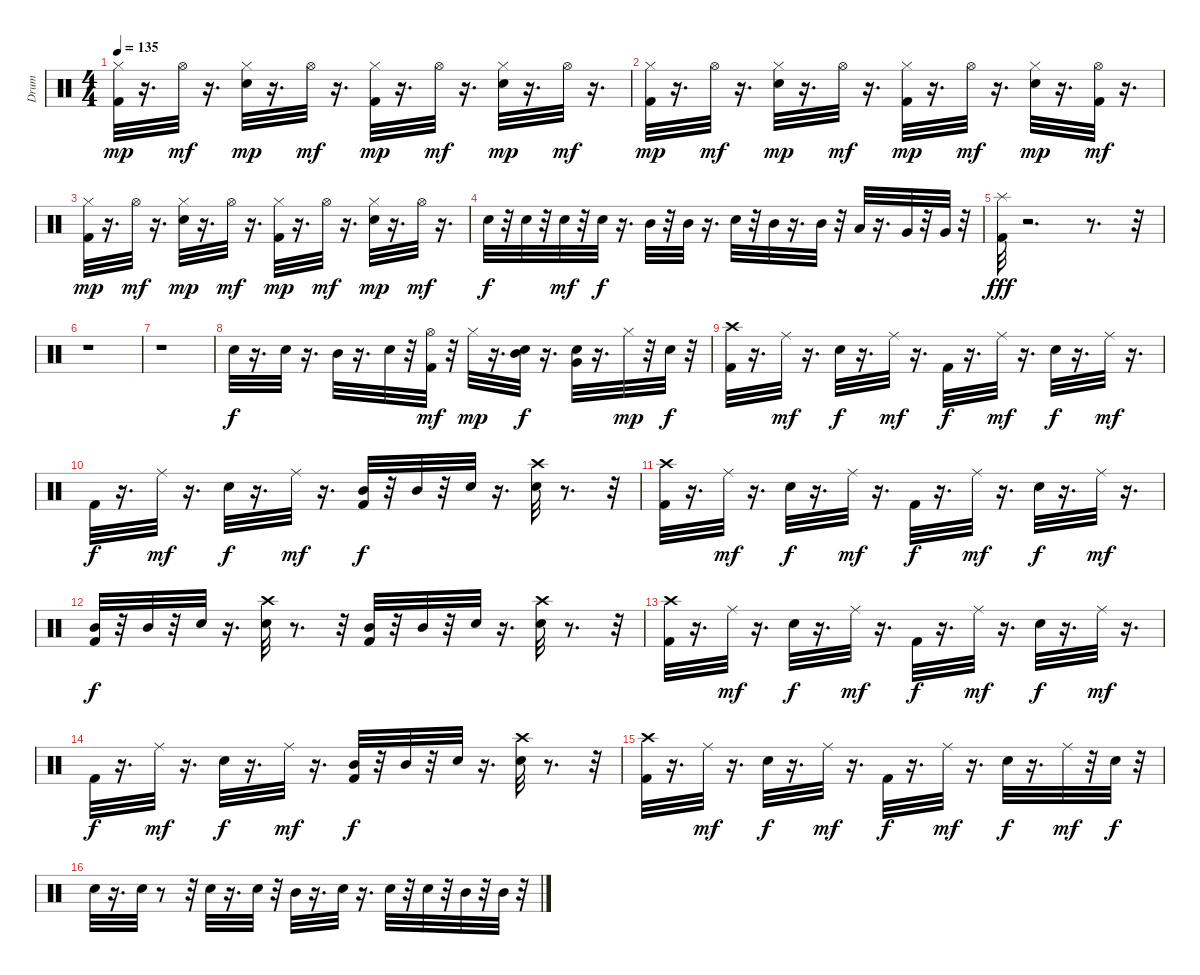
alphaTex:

\track ("Drum" "Drum") {instrument percussion}
\staff {score}
\articulation defaults
\ts (4 4)
\tempo 135
\clef neutral
\ks c
("Hi-Hat (closed)" "Kick (hit) 2").32{dy mp} r.16{d} "Hi-Hat (open)".32{dy mf} r.16{d} ("Hi-Hat (closed)" "Electric Snare (hit)").32{dy mp} r.16{d} "Hi-Hat (open)".32{dy mf} r.16{d} ("Hi-Hat (closed)" "Kick (hit) 2").32{dy mp} r.16{d} "Hi-Hat (open)".32{dy mf} r.16{d} ("Hi-Hat (closed)" "Electric Snare (hit)").32{dy mp} r.16{d} "Hi-Hat (open)".32{dy mf} r.16{d} |
("Hi-Hat (closed)" "Kick (hit) 2").32{dy mp} r.16{d} "Hi-Hat (open)".32{dy mf} r.16{d} ("Hi-Hat (closed)" "Electric Snare (hit)").32{dy mp} r.16{d} "Hi-Hat (open)".32{dy mf} r.16{d} ("Hi-Hat (closed)" "Kick (hit) 2").32{dy mp} r.16{d} "Hi-Hat (open)".32{dy mf} r.16{d} ("Hi-Hat (closed)" "Electric Snare (hit)").32{dy mp} r.16{d} ("Hi-Hat (open)" "Kick (hit) 2").32{dy mf} r.16{d} |
("Hi-Hat (closed)" "Kick (hit) 2").32{dy mp} r.16{d} "Hi-Hat (open)".32{dy mf} r.16{d} ("Hi-Hat (closed)" "Electric Snare (hit)").32{dy mp} r.16{d} "Hi-Hat (open)".32{dy mf} r.16{d} ("Hi-Hat (closed)" "Kick (hit) 2").32{dy mp} r.16{d} "Hi-Hat (open)".32{dy mf} r.16{d} ("Hi-Hat (closed)" "Electric Snare (hit)").32{dy mp} r.16{d} "Hi-Hat (open)".32{dy mf} r.16{d} |
"Electric Snare (hit)".32{dy f} r.32 "Electric Snare (hit)".32 r.32 "Electric Snare (hit)".32{dy mf} r.32 "Electric Snare (hit)".32{dy f} r.16{d} "Mid Tom (hit)".32 r.32 "Mid Tom (hit)".32 r.16{d} "Electric Snare (hit)".32 r.32 "Mid Tom (hit)".32 r.16{d} "Mid Tom (hit)".32 r.32 "Low Tom (hit)".32 r.16{d} "Very Low Tom (hit)".32 r.32 "Very Low Tom (hit)".32 r.32 |
("Kick (hit) 2" "Splash (hit)").32{dy fff} r.2{d} r.8{d} r.32 |
r.1 |
r.1 |
"Electric Snare (hit)".32{dy f} r.16{d} "Electric Snare (hit)".32 r.16{d} "Mid Tom (hit)".32 r.16{d} "Electric Snare (hit)".32 r.32 ("Hi-Hat (open)" "Kick (hit) 2").32{dy mf} r.32 "Hi-Hat (closed)".32{dy mp} r.16{d} ("Electric Snare (hit)" "Mid Tom (hit)").32{dy f} r.16{d} ("Very Low Tom (hit)" "Electric Snare (hit)").32 r.16{d} "Hi-Hat (closed)".32{dy mp} r.32 "Electric Snare (hit)".32{dy f} r.32 |
("Crash high (hit)" "Kick (hit) 2").32 r.16{d} "Ride (middle)".32{dy mf} r.16{d} "Electric Snare (hit)".32{dy f} r.16{d} "Ride (middle)".32{dy mf} r.16{d} "Kick (hit) 2".32{dy f} r.16{d} "Ride (middle)".32{dy mf} r.16{d} "Electric Snare (hit)".32{dy f} r.16{d} "Ride (middle)".32{dy mf} r.16{d} |
"Kick (hit) 2".32{dy f} r.16{d} "Ride (middle)".32{dy mf} r.16{d} "Electric Snare (hit)".32{dy f} r.16{d} "Ride (middle)".32{dy mf} r.16{d} ("Mid Tom (hit)" "Kick (hit) 2").32{dy f} r.32 "Mid Tom (hit)".32 r.32 "Electric Snare (hit)".32 r.16{d} ("Electric Snare (hit)" "Crash high (hit)").32 r.8{d} r.32 |
("Crash high (hit)" "Kick (hit) 2").32 r.16{d} "Ride (middle)".32{dy mf} r.16{d} "Electric Snare (hit)".32{dy f} r.16{d} "Ride (middle)".32{dy mf} r.16{d} "Kick (hit) 2".32{dy f} r.16{d} "Ride (middle)".32{dy mf} r.16{d} "Electric Snare (hit)".32{dy f} r.16{d} "Ride (middle)".32{dy mf} r.16{d} |
("Mid Tom (hit)" "Kick (hit) 2").32{dy f} r.32 "Mid Tom (hit)".32 r.32 "Electric Snare (hit)".32 r.16{d} ("Electric Snare (hit)" "Crash high (hit)").32 r.8{d} r.32 ("Mid Tom (hit)" "Kick (hit) 2").32 r.32 "Mid Tom (hit)".32 r.32 "Electric Snare (hit)".32 r.16{d} ("Electric Snare (hit)" "Crash high (hit)").32 r.8{d} r.32 |
("Crash high (hit)" "Kick (hit) 2").32 r.16{d} "Ride (middle)".32{dy mf} r.16{d} "Electric Snare (hit)".32{dy f} r.16{d} "Ride (middle)".32{dy mf} r.16{d} "Kick (hit) 2".32{dy f} r.16{d} "Ride (middle)".32{dy mf} r.16{d} "Electric Snare (hit)".32{dy f} r.16{d} "Ride (middle)".32{dy mf} r.16{d} |
"Kick (hit) 2".32{dy f} r.16{d} "Ride (middle)".32{dy mf} r.16{d} "Electric Snare (hit)".32{dy f} r.16{d} "Ride (middle)".32{dy mf} r.16{d} ("Mid Tom (hit)" "Kick (hit) 2").32{dy f} r.32 "Mid Tom (hit)".32 r.32 "Electric Snare (hit)".32 r.16{d} ("Electric Snare (hit)" "Crash high (hit)").32 r.8{d} r.32 |
("Crash high (hit)" "Kick (hit) 2").32 r.16{d} "Ride (middle)".32{dy mf} r.16{d} "Electric Snare (hit)".32{dy f} r.16{d} "Ride (middle)".32{dy mf} r.16{d} "Kick (hit) 2".32{dy f} r.16{d} "Ride (middle)".32{dy mf} r.16{d} "Electric Snare (hit)".32{dy f} r.16{d} "Ride (middle)".32{dy mf} r.32 "Electric Snare (hit)".32{dy f} r.32 |
"Electric Snare (hit)".32 r.16{d} "Electric Snare (hit)".32 r.8 r.32 "Electric Snare (hit)".32 r.16{d} "Electric Snare (hit)".32 r.32 "Mid Tom (hit)".32 r.16{d} "Electric Snare (hit)".32 r.16{d} "Electric Snare (hit)".32 r.32 "Electric Snare (hit)".32 r.32 "Mid Tom (hit)".32 r.32 "Mid Tom (hit)".32 r.32
